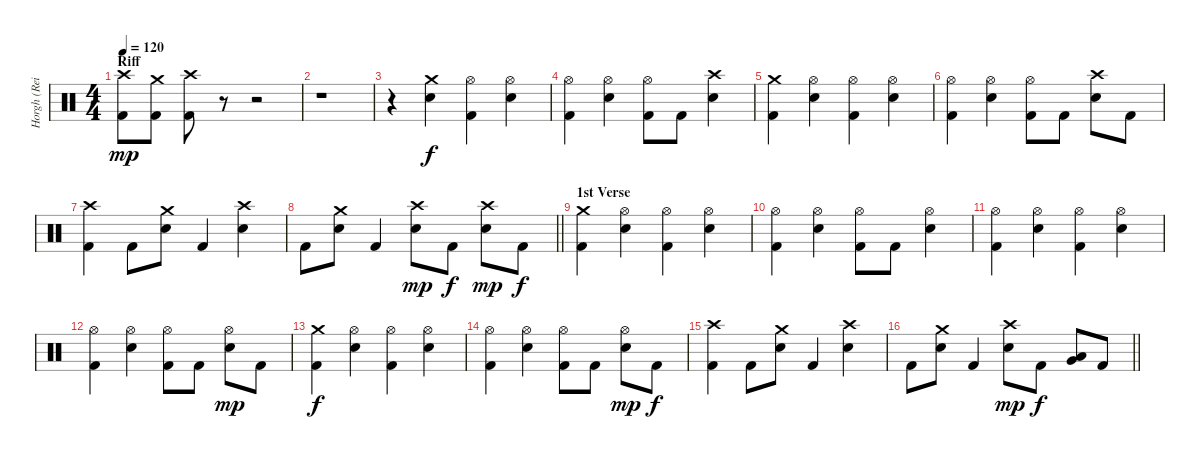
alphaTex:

\track ("Horgh (Reidar Horghagen)" "Horgh (Rei") {instrument percussion}
\staff {score}
\articulation defaults
\ts (4 4)
\section ("" "Riff")
\tempo 120
\clef neutral
\ks c
("Crash high (hit)" "Kick (hit) 2").8{dy mp} ("Crash medium (hit)" "Kick (hit) 2").8 ("Crash high (hit)" "Kick (hit) 2").8 r.8 r.2 |
r.1 |
r.4 ("Crash medium (hit)" "Snare (hit) 2").4{dy f} ("Hi-Hat (open)" "Kick (hit) 2").4 ("Hi-Hat (open)" "Snare (hit) 2").4 |
("Hi-Hat (open)" "Kick (hit) 2").4 ("Hi-Hat (open)" "Snare (hit) 2").4 ("Hi-Hat (open)" "Kick (hit) 2").8 "Kick (hit) 2".8 ("Crash high (hit)" "Snare (hit) 2").4 |
("Crash medium (hit)" "Kick (hit) 2").4 ("Hi-Hat (open)" "Snare (hit) 2").4 ("Hi-Hat (open)" "Kick (hit) 2").4 ("Hi-Hat (open)" "Snare (hit) 2").4 |
("Hi-Hat (open)" "Kick (hit) 2").4 ("Hi-Hat (open)" "Snare (hit) 2").4 ("Hi-Hat (open)" "Kick (hit) 2").8 "Kick (hit) 2".8 ("Crash high (hit)" "Snare (hit) 2").8 "Kick (hit) 2".8 |
("Crash high (hit)" "Kick (hit) 2").4 "Kick (hit) 2".8 ("Crash medium (hit)" "Snare (hit) 2").8 "Kick (hit) 2".4 ("Crash high (hit)" "Snare (hit) 2").4 |
\barLineRight lightlight "Kick (hit) 2".8
("Crash medium (hit)" "Snare (hit) 2").8 "Kick (hit) 2".4 ("Crash high (hit)" "Snare (hit) 2").8{dy mp} "Kick (hit) 2".8{dy f} ("Crash high (hit)" "Snare (hit) 2").8{dy mp} "Kick (hit) 2".8{dy f} |
\section ("" "1st Verse")
("Crash medium (hit)" "Kick (hit) 2").4 ("Hi-Hat (open)" "Snare (hit) 2").4 ("Hi-Hat (open)" "Kick (hit) 2").4 ("Hi-Hat (open)" "Snare (hit) 2").4 |
("Hi-Hat (open)" "Kick (hit) 2").4 ("Hi-Hat (open)" "Snare (hit) 2").4 ("Hi-Hat (open)" "Kick (hit) 2").8 "Kick (hit) 2".8 ("Hi-Hat (open)" "Snare (hit) 2").4 |
("Hi-Hat (open)" "Kick (hit) 2").4 ("Hi-Hat (open)" "Snare (hit) 2").4 ("Hi-Hat (open)" "Kick (hit) 2").4 ("Hi-Hat (open)" "Snare (hit) 2").4 |
("Hi-Hat (open)" "Kick (hit) 2").4 ("Hi-Hat (open)" "Snare (hit) 2").4 ("Hi-Hat (open)" "Kick (hit) 2").8 "Kick (hit) 2".8 ("Hi-Hat (open)" "Snare (hit) 2").8{dy mp} "Kick (hit) 2".8 |
("Crash medium (hit)" "Kick (hit) 2").4{dy f} ("Hi-Hat (open)" "Snare (hit) 2").4 ("Hi-Hat (open)" "Kick (hit) 2").4 ("Hi-Hat (open)" "Snare (hit) 2").4 |
("Hi-Hat (open)" "Kick (hit) 2").4 ("Hi-Hat (open)" "Snare (hit) 2").4 ("Hi-Hat (open)" "Kick (hit) 2").8 "Kick (hit) 2".8 ("Hi-Hat (open)" "Snare (hit) 2").8{dy mp} "Kick (hit) 2".8{dy f} |
("Crash high (hit)" "Kick (hit) 2").4 "Kick (hit) 2".8 ("Crash medium (hit)" "Snare (hit) 2").8 "Kick (hit) 2".4 ("Crash high (hit)" "Snare (hit) 2").4 |
\barLineRight lightlight "Kick (hit) 2".8
("Crash medium (hit)" "Snare (hit) 2").8 "Kick (hit) 2".4 ("Crash high (hit)" "Snare (hit) 2").8{dy mp} "Kick (hit) 2".8{dy f} ("Very Low Tom (hit)" "Low Floor Tom (hit)").8 "Kick (hit) 2".8
